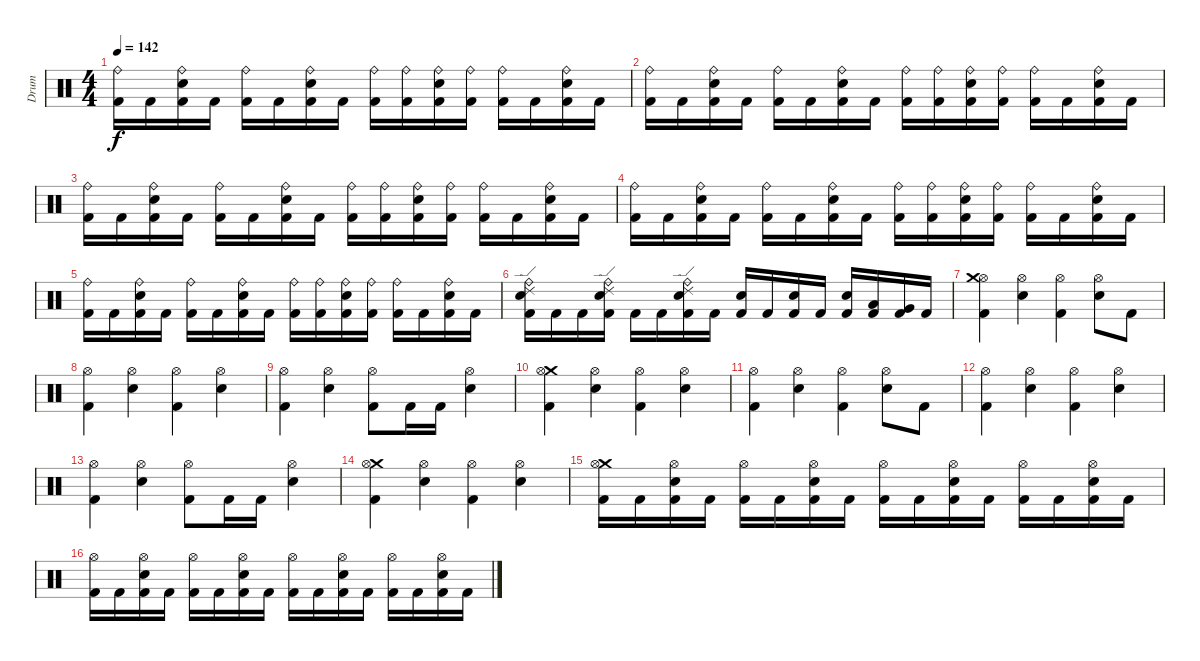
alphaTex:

\track ("Drum" "Drum") {instrument percussion}
\staff {score}
\articulation defaults
\ts (4 4)
\tempo 142
\clef neutral
\ks c
("Ride (bell)" "Kick (hit) 2").16{dy f} "Kick (hit) 2".16 ("Electric Snare (hit)" "Ride (bell)" "Kick (hit) 2").16 "Kick (hit) 2".16 ("Ride (bell)" "Kick (hit) 2").16 "Kick (hit) 2".16 ("Electric Snare (hit)" "Ride (bell)" "Kick (hit) 2").16 "Kick (hit) 2".16 ("Ride (bell)" "Kick (hit) 2").16 ("Kick (hit) 2" "Ride (bell)").16 ("Electric Snare (hit)" "Ride (bell)" "Kick (hit) 2").16 ("Kick (hit) 2" "Ride (bell)").16 ("Ride (bell)" "Kick (hit) 2").16 "Kick (hit) 2".16 ("Electric Snare (hit)" "Ride (bell)" "Kick (hit) 2").16 "Kick (hit) 2".16 |
("Ride (bell)" "Kick (hit) 2").16 "Kick (hit) 2".16 ("Electric Snare (hit)" "Ride (bell)" "Kick (hit) 2").16 "Kick (hit) 2".16 ("Ride (bell)" "Kick (hit) 2").16 "Kick (hit) 2".16 ("Electric Snare (hit)" "Ride (bell)" "Kick (hit) 2").16 "Kick (hit) 2".16 ("Ride (bell)" "Kick (hit) 2").16 ("Kick (hit) 2" "Ride (bell)").16 ("Electric Snare (hit)" "Ride (bell)" "Kick (hit) 2").16 ("Kick (hit) 2" "Ride (bell)").16 ("Ride (bell)" "Kick (hit) 2").16 "Kick (hit) 2".16 ("Electric Snare (hit)" "Ride (bell)" "Kick (hit) 2").16 "Kick (hit) 2".16 |
("Ride (bell)" "Kick (hit) 2").16 "Kick (hit) 2".16 ("Electric Snare (hit)" "Ride (bell)" "Kick (hit) 2").16 "Kick (hit) 2".16 ("Ride (bell)" "Kick (hit) 2").16 "Kick (hit) 2".16 ("Electric Snare (hit)" "Ride (bell)" "Kick (hit) 2").16 "Kick (hit) 2".16 ("Ride (bell)" "Kick (hit) 2").16 ("Kick (hit) 2" "Ride (bell)").16 ("Electric Snare (hit)" "Ride (bell)" "Kick (hit) 2").16 ("Kick (hit) 2" "Ride (bell)").16 ("Ride (bell)" "Kick (hit) 2").16 "Kick (hit) 2".16 ("Electric Snare (hit)" "Ride (bell)" "Kick (hit) 2").16 "Kick (hit) 2".16 |
("Ride (bell)" "Kick (hit) 2").16 "Kick (hit) 2".16 ("Electric Snare (hit)" "Ride (bell)" "Kick (hit) 2").16 "Kick (hit) 2".16 ("Ride (bell)" "Kick (hit) 2").16 "Kick (hit) 2".16 ("Electric Snare (hit)" "Ride (bell)" "Kick (hit) 2").16 "Kick (hit) 2".16 ("Ride (bell)" "Kick (hit) 2").16 ("Kick (hit) 2" "Ride (bell)").16 ("Electric Snare (hit)" "Ride (bell)" "Kick (hit) 2").16 ("Kick (hit) 2" "Ride (bell)").16 ("Ride (bell)" "Kick (hit) 2").16 "Kick (hit) 2".16 ("Electric Snare (hit)" "Ride (bell)" "Kick (hit) 2").16 "Kick (hit) 2".16 |
("Ride (bell)" "Kick (hit) 2").16 "Kick (hit) 2".16 ("Electric Snare (hit)" "Ride (bell)" "Kick (hit) 2").16 "Kick (hit) 2".16 ("Ride (bell)" "Kick (hit) 2").16 "Kick (hit) 2".16 ("Electric Snare (hit)" "Ride (bell)" "Kick (hit) 2").16 "Kick (hit) 2".16 ("Ride (bell)" "Kick (hit) 2").16 ("Kick (hit) 2" "Ride (bell)").16 ("Electric Snare (hit)" "Ride (bell)" "Kick (hit) 2").16 ("Kick (hit) 2" "Ride (bell)").16 ("Ride (bell)" "Kick (hit) 2").16 "Kick (hit) 2".16 ("Electric Snare (hit)" "Ride (bell)" "Kick (hit) 2").16 "Kick (hit) 2".16 |
("Ride (bell)" "Electric Snare (hit)" "Ride (edge) 2" "Kick (hit) 2").16 "Kick (hit) 2".16 "Kick (hit) 2".16 ("Ride (bell)" "Electric Snare (hit)" "Ride (edge) 2" "Kick (hit) 2").16 "Kick (hit) 2".16 "Kick (hit) 2".16 ("Ride (bell)" "Electric Snare (hit)" "Ride (edge) 2" "Kick (hit) 2").16 "Kick (hit) 2".16 ("Electric Snare (hit)" "Kick (hit) 2").16 "Kick (hit) 2".16 ("Electric Snare (hit)" "Kick (hit) 2").16 "Kick (hit) 2".16 ("Electric Snare (hit)" "Kick (hit) 2").16 ("Low Tom (hit)" "Kick (hit) 2").16 ("Very Low Tom (hit)" "Kick (hit) 2").16 "Kick (hit) 2".16 |
("Kick (hit) 2" "Hi-Hat (open)" "Crash medium (hit)").4 ("Electric Snare (hit)" "Hi-Hat (open)").4 ("Kick (hit) 2" "Hi-Hat (open)").4 ("Electric Snare (hit)" "Hi-Hat (open)").8 "Kick (hit) 2".8 |
("Kick (hit) 2" "Hi-Hat (open)").4 ("Electric Snare (hit)" "Hi-Hat (open)").4 ("Kick (hit) 2" "Hi-Hat (open)").4 ("Electric Snare (hit)" "Hi-Hat (open)").4 |
("Kick (hit) 2" "Hi-Hat (open)").4 ("Electric Snare (hit)" "Hi-Hat (open)").4 ("Kick (hit) 2" "Hi-Hat (open)").8 "Kick (hit) 2".16 "Kick (hit) 2".16 ("Electric Snare (hit)" "Hi-Hat (open)").4 |
("Crash medium (hit)" "Kick (hit) 2" "Hi-Hat (open)").4 ("Electric Snare (hit)" "Hi-Hat (open)").4 ("Kick (hit) 2" "Hi-Hat (open)").4 ("Electric Snare (hit)" "Hi-Hat (open)").4 |
("Kick (hit) 2" "Hi-Hat (open)").4 ("Electric Snare (hit)" "Hi-Hat (open)").4 ("Kick (hit) 2" "Hi-Hat (open)").4 ("Electric Snare (hit)" "Hi-Hat (open)").8 "Kick (hit) 2".8 |
("Kick (hit) 2" "Hi-Hat (open)").4 ("Electric Snare (hit)" "Hi-Hat (open)").4 ("Kick (hit) 2" "Hi-Hat (open)").4 ("Electric Snare (hit)" "Hi-Hat (open)").4 |
("Kick (hit) 2" "Hi-Hat (open)").4 ("Electric Snare (hit)" "Hi-Hat (open)").4 ("Kick (hit) 2" "Hi-Hat (open)").8 "Kick (hit) 2".16 "Kick (hit) 2".16 ("Electric Snare (hit)" "Hi-Hat (open)").4 |
("Crash medium (hit)" "Kick (hit) 2" "Hi-Hat (open)").4 ("Electric Snare (hit)" "Hi-Hat (open)").4 ("Kick (hit) 2" "Hi-Hat (open)").4 ("Electric Snare (hit)" "Hi-Hat (open)").4 |
("Crash medium (hit)" "Hi-Hat (open)" "Kick (hit) 2").16 "Kick (hit) 2".16 ("Electric Snare (hit)" "Hi-Hat (open)" "Kick (hit) 2").16 "Kick (hit) 2".16 ("Hi-Hat (open)" "Kick (hit) 2").16 "Kick (hit) 2".16 ("Electric Snare (hit)" "Hi-Hat (open)" "Kick (hit) 2").16 "Kick (hit) 2".16 ("Hi-Hat (open)" "Kick (hit) 2").16 "Kick (hit) 2".16 ("Electric Snare (hit)" "Hi-Hat (open)" "Kick (hit) 2").16 "Kick (hit) 2".16 ("Hi-Hat (open)" "Kick (hit) 2").16 "Kick (hit) 2".16 ("Electric Snare (hit)" "Hi-Hat (open)" "Kick (hit) 2").16 "Kick (hit) 2".16 |
("Hi-Hat (open)" "Kick (hit) 2").16 "Kick (hit) 2".16 ("Electric Snare (hit)" "Hi-Hat (open)" "Kick (hit) 2").16 "Kick (hit) 2".16 ("Hi-Hat (open)" "Kick (hit) 2").16 "Kick (hit) 2".16 ("Electric Snare (hit)" "Hi-Hat (open)" "Kick (hit) 2").16 "Kick (hit) 2".16 ("Hi-Hat (open)" "Kick (hit) 2").16 "Kick (hit) 2".16 ("Electric Snare (hit)" "Hi-Hat (open)" "Kick (hit) 2").16 "Kick (hit) 2".16 ("Hi-Hat (open)" "Kick (hit) 2").16 "Kick (hit) 2".16 ("Electric Snare (hit)" "Hi-Hat (open)" "Kick (hit) 2").16 "Kick (hit) 2".16
